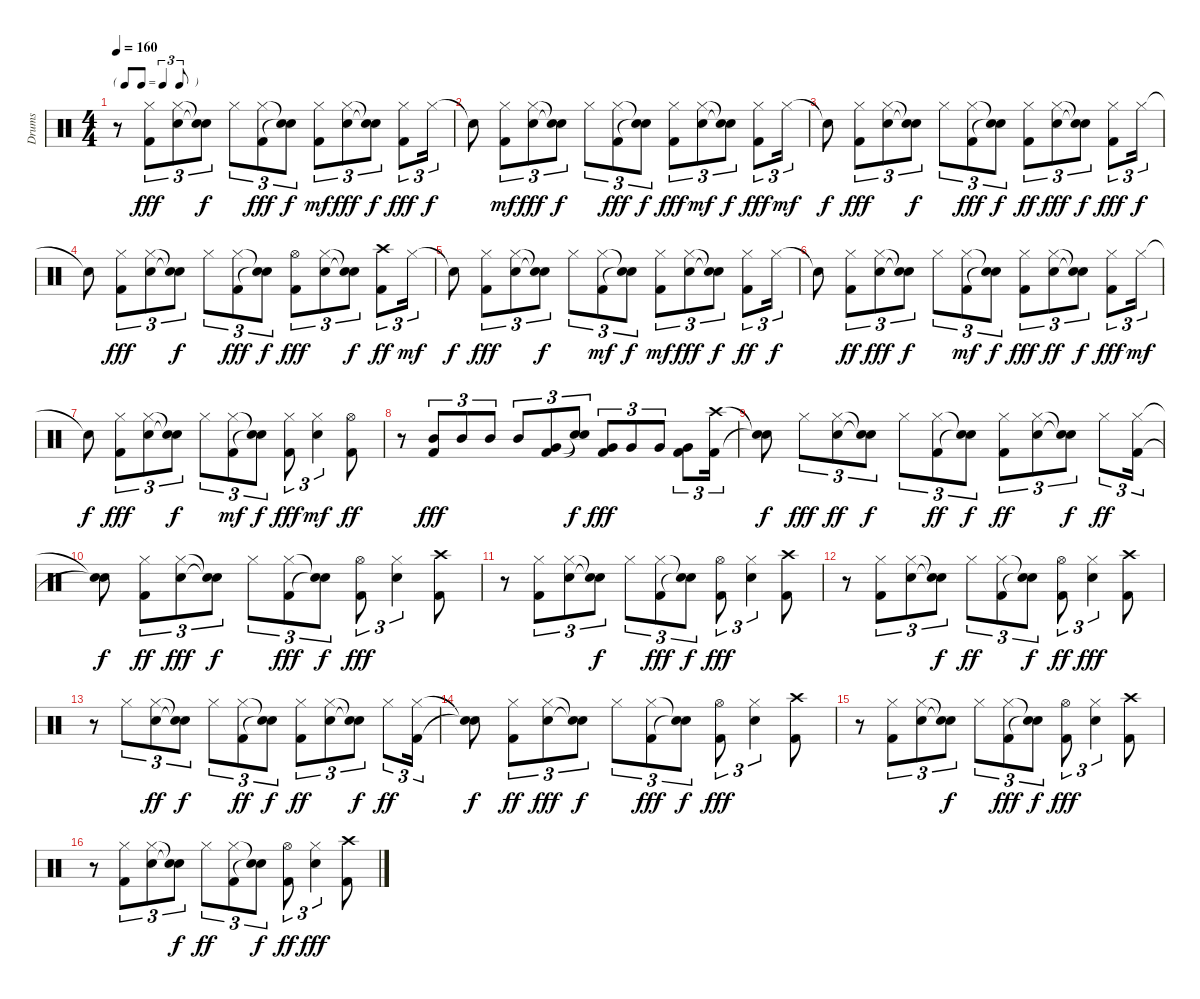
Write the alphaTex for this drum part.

\track ("Drums" "Drums") {instrument percussion}
\staff {score}
\articulation defaults
\ts (4 4)
\tf triplet8th
\tempo 160
\clef neutral
\ks c
r.8{dy ff} ("Kick (hit) 2" "Hi-Hat (closed)").8{tu (3 2) dy fff} ("Hi-Hat (closed)" "Electric Snare (hit)").8{tu (3 2)} ("Snare (hit)"{t} "Snare (hit)"{t}).8{tu (3 2) dy f} "Hi-Hat (closed)".8{tu (3 2)} ("Kick (hit) 2" "Hi-Hat (closed)").8{tu (3 2) dy fff} ("Snare (hit)"{t} "Snare (hit)"{t}).8{tu (3 2) dy f} ("Kick (hit) 2" "Hi-Hat (closed)").8{tu (3 2) dy mf} ("Electric Snare (hit)" "Hi-Hat (closed)").8{tu (3 2) dy fff} ("Snare (hit)"{t} "Snare (hit)"{t}).8{tu (3 2) dy f} ("Kick (hit) 2" "Hi-Hat (closed)").8{tu (3 2) dy fff} "Hi-Hat (closed)".16{tu (3 2) dy f} |
"Snare (hit)"{t}.8 ("Kick (hit) 2" "Hi-Hat (closed)").8{tu (3 2) dy mf} ("Electric Snare (hit)" "Hi-Hat (closed)").8{tu (3 2) dy fff} ("Snare (hit)"{t} "Snare (hit)"{t}).8{tu (3 2) dy f} "Hi-Hat (closed)".8{tu (3 2)} ("Kick (hit) 2" "Hi-Hat (closed)").8{tu (3 2) dy fff} ("Snare (hit)"{t} "Snare (hit)"{t}).8{tu (3 2) dy f} ("Kick (hit) 2" "Hi-Hat (closed)").8{tu (3 2) dy fff} ("Electric Snare (hit)" "Hi-Hat (closed)").8{tu (3 2) dy mf} ("Snare (hit)"{t} "Snare (hit)"{t}).8{tu (3 2) dy f} ("Kick (hit) 2" "Hi-Hat (closed)").8{tu (3 2) dy fff} "Hi-Hat (closed)".16{tu (3 2) dy mf} |
"Snare (hit)"{t}.8{dy f} ("Kick (hit) 2" "Hi-Hat (closed)").8{tu (3 2) dy fff} ("Hi-Hat (closed)" "Electric Snare (hit)").8{tu (3 2)} ("Snare (hit)"{t} "Snare (hit)"{t}).8{tu (3 2) dy f} "Hi-Hat (closed)".8{tu (3 2)} ("Kick (hit) 2" "Hi-Hat (closed)").8{tu (3 2) dy fff} ("Snare (hit)"{t} "Snare (hit)"{t}).8{tu (3 2) dy f} ("Kick (hit) 2" "Hi-Hat (closed)").8{tu (3 2) dy ff} ("Hi-Hat (closed)" "Electric Snare (hit)").8{tu (3 2) dy fff} ("Snare (hit)"{t} "Snare (hit)"{t}).8{tu (3 2) dy f} ("Kick (hit) 2" "Hi-Hat (closed)").8{tu (3 2) dy fff} "Hi-Hat (closed)".16{tu (3 2) dy f} |
"Snare (hit)"{t}.8 ("Kick (hit) 2" "Hi-Hat (closed)").8{tu (3 2) dy fff} ("Hi-Hat (closed)" "Electric Snare (hit)").8{tu (3 2)} ("Snare (hit)"{t} "Snare (hit)"{t}).8{tu (3 2) dy f} "Hi-Hat (closed)".8{tu (3 2)} ("Kick (hit) 2" "Hi-Hat (closed)").8{tu (3 2) dy fff} ("Snare (hit)"{t} "Snare (hit)"{t}).8{tu (3 2) dy f} ("Kick (hit) 2" "Hi-Hat (open)").8{tu (3 2) dy fff} ("Electric Snare (hit)" "Hi-Hat (closed)").8{tu (3 2)} ("Snare (hit)"{t} "Snare (hit)"{t}).8{tu (3 2) dy f} ("Kick (hit) 2" "Crash high (hit)").8{tu (3 2) dy ff} "Hi-Hat (closed)".16{tu (3 2) dy mf} |
"Snare (hit)"{t}.8{dy f} ("Kick (hit) 2" "Hi-Hat (closed)").8{tu (3 2) dy fff} ("Electric Snare (hit)" "Hi-Hat (closed)").8{tu (3 2)} ("Snare (hit)"{t} "Snare (hit)"{t}).8{tu (3 2) dy f} "Hi-Hat (closed)".8{tu (3 2)} ("Kick (hit) 2" "Hi-Hat (closed)").8{tu (3 2) dy mf} ("Snare (hit)"{t} "Snare (hit)"{t}).8{tu (3 2) dy f} ("Kick (hit) 2" "Hi-Hat (closed)").8{tu (3 2) dy mf} ("Electric Snare (hit)" "Hi-Hat (closed)").8{tu (3 2) dy fff} ("Snare (hit)"{t} "Snare (hit)"{t}).8{tu (3 2) dy f} ("Kick (hit) 2" "Hi-Hat (closed)").8{tu (3 2) dy ff} "Hi-Hat (closed)".16{tu (3 2) dy f} |
"Snare (hit)"{t}.8 ("Kick (hit) 2" "Hi-Hat (closed)").8{tu (3 2) dy ff} ("Hi-Hat (closed)" "Electric Snare (hit)").8{tu (3 2) dy fff} ("Snare (hit)"{t} "Snare (hit)"{t}).8{tu (3 2) dy f} "Hi-Hat (closed)".8{tu (3 2)} ("Kick (hit) 2" "Hi-Hat (closed)").8{tu (3 2) dy mf} ("Snare (hit)"{t} "Snare (hit)"{t}).8{tu (3 2) dy f} ("Kick (hit) 2" "Hi-Hat (closed)").8{tu (3 2) dy fff} ("Electric Snare (hit)" "Hi-Hat (closed)").8{tu (3 2) dy ff} ("Snare (hit)"{t} "Snare (hit)"{t}).8{tu (3 2) dy f} ("Kick (hit) 2" "Hi-Hat (closed)").8{tu (3 2) dy fff} "Hi-Hat (closed)".16{tu (3 2) dy mf} |
"Snare (hit)"{t}.8{dy f} ("Kick (hit) 2" "Hi-Hat (closed)").8{tu (3 2) dy fff} ("Hi-Hat (closed)" "Electric Snare (hit)").8{tu (3 2)} ("Snare (hit)"{t} "Snare (hit)"{t}).8{tu (3 2) dy f} "Hi-Hat (closed)".8{tu (3 2)} ("Kick (hit) 2" "Hi-Hat (closed)").8{tu (3 2) dy mf} ("Snare (hit)"{t} "Snare (hit)"{t}).8{tu (3 2) dy f} ("Kick (hit) 2" "Hi-Hat (closed)").8{tu (3 2) dy fff} ("Electric Snare (hit)" "Hi-Hat (closed)").4{tu (3 2) dy mf} ("Kick (hit) 2" "Hi-Hat (open)").8{dy ff} |
r.8 ("Kick (hit) 2" "Mid Tom (hit)").8{tu (3 2) dy fff} "Mid Tom (hit)".8{tu (3 2)} "Mid Tom (hit)".8{tu (3 2)} "Mid Tom (hit)".8{tu (3 2)} ("Kick (hit) 2" "Very Low Tom (hit)").8{tu (3 2)} ("Snare (hit)"{t} "Snare (hit)"{t}).8{tu (3 2) dy f} ("Kick (hit) 2" "Very Low Tom (hit)").8{tu (3 2) dy fff} "Very Low Tom (hit)".8{tu (3 2)} "Very Low Tom (hit)".8{tu (3 2)} ("Kick (hit) 2" "Very Low Tom (hit)").8{tu (3 2)} ("Kick (hit) 2" "Crash high (hit)").16{tu (3 2)} |
("Snare (hit)"{t} "Snare (hit)"{t}).8{dy f} "Hi-Hat (closed)".8{tu (3 2) dy fff} ("Electric Snare (hit)" "Hi-Hat (closed)").8{tu (3 2) dy ff} ("Snare (hit)"{t} "Snare (hit)"{t}).8{tu (3 2) dy f} "Hi-Hat (closed)".8{tu (3 2)} ("Kick (hit) 2" "Hi-Hat (closed)").8{tu (3 2) dy ff} ("Snare (hit)"{t} "Snare (hit)"{t}).8{tu (3 2) dy f} ("Kick (hit) 2" "Hi-Hat (closed)").8{tu (3 2) dy ff} ("Electric Snare (hit)" "Hi-Hat (closed)").8{tu (3 2)} ("Snare (hit)"{t} "Snare (hit)"{t}).8{tu (3 2) dy f} "Hi-Hat (closed)".8{tu (3 2) dy ff} ("Kick (hit) 2" "Hi-Hat (closed)").16{tu (3 2)} |
("Snare (hit)"{t} "Snare (hit)"{t}).8{dy f} ("Kick (hit) 2" "Hi-Hat (closed)").8{tu (3 2) dy ff} ("Hi-Hat (closed)" "Electric Snare (hit)").8{tu (3 2) dy fff} ("Snare (hit)"{t} "Snare (hit)"{t}).8{tu (3 2) dy f} "Hi-Hat (closed)".8{tu (3 2)} ("Kick (hit) 2" "Hi-Hat (closed)").8{tu (3 2) dy fff} ("Snare (hit)"{t} "Snare (hit)"{t}).8{tu (3 2) dy f} ("Kick (hit) 2" "Hi-Hat (open)").8{tu (3 2) dy fff} ("Electric Snare (hit)" "Hi-Hat (closed)").4{tu (3 2)} ("Kick (hit) 2" "Crash high (hit)").8 |
r.8 ("Kick (hit) 2" "Hi-Hat (closed)").8{tu (3 2)} ("Hi-Hat (closed)" "Electric Snare (hit)").8{tu (3 2)} ("Snare (hit)"{t} "Snare (hit)"{t}).8{tu (3 2) dy f} "Hi-Hat (closed)".8{tu (3 2)} ("Kick (hit) 2" "Hi-Hat (closed)").8{tu (3 2) dy fff} ("Snare (hit)"{t} "Snare (hit)"{t}).8{tu (3 2) dy f} ("Kick (hit) 2" "Hi-Hat (open)").8{tu (3 2) dy fff} ("Hi-Hat (closed)" "Electric Snare (hit)").4{tu (3 2)} ("Kick (hit) 2" "Crash high (hit)").8 |
r.8 ("Kick (hit) 2" "Hi-Hat (closed)").8{tu (3 2)} ("Hi-Hat (closed)" "Electric Snare (hit)").8{tu (3 2)} ("Snare (hit)"{t} "Snare (hit)"{t}).8{tu (3 2) dy f} "Hi-Hat (closed)".8{tu (3 2) dy ff} ("Kick (hit) 2" "Hi-Hat (closed)").8{tu (3 2)} ("Snare (hit)"{t} "Snare (hit)"{t}).8{tu (3 2) dy f} ("Kick (hit) 2" "Hi-Hat (open)").8{tu (3 2) dy ff} ("Hi-Hat (closed)" "Electric Snare (hit)").4{tu (3 2) dy fff} ("Kick (hit) 2" "Crash high (hit)").8 |
r.8 "Hi-Hat (closed)".8{tu (3 2)} ("Electric Snare (hit)" "Hi-Hat (closed)").8{tu (3 2) dy ff} ("Snare (hit)"{t} "Snare (hit)"{t}).8{tu (3 2) dy f} "Hi-Hat (closed)".8{tu (3 2)} ("Kick (hit) 2" "Hi-Hat (closed)").8{tu (3 2) dy ff} ("Snare (hit)"{t} "Snare (hit)"{t}).8{tu (3 2) dy f} ("Kick (hit) 2" "Hi-Hat (closed)").8{tu (3 2) dy ff} ("Electric Snare (hit)" "Hi-Hat (closed)").8{tu (3 2)} ("Snare (hit)"{t} "Snare (hit)"{t}).8{tu (3 2) dy f} "Hi-Hat (closed)".8{tu (3 2) dy ff} ("Kick (hit) 2" "Hi-Hat (closed)").16{tu (3 2)} |
("Snare (hit)"{t} "Snare (hit)"{t}).8{dy f} ("Kick (hit) 2" "Hi-Hat (closed)").8{tu (3 2) dy ff} ("Hi-Hat (closed)" "Electric Snare (hit)").8{tu (3 2) dy fff} ("Snare (hit)"{t} "Snare (hit)"{t}).8{tu (3 2) dy f} "Hi-Hat (closed)".8{tu (3 2)} ("Kick (hit) 2" "Hi-Hat (closed)").8{tu (3 2) dy fff} ("Snare (hit)"{t} "Snare (hit)"{t}).8{tu (3 2) dy f} ("Kick (hit) 2" "Hi-Hat (open)").8{tu (3 2) dy fff} ("Electric Snare (hit)" "Hi-Hat (closed)").4{tu (3 2)} ("Kick (hit) 2" "Crash high (hit)").8 |
r.8 ("Kick (hit) 2" "Hi-Hat (closed)").8{tu (3 2)} ("Hi-Hat (closed)" "Electric Snare (hit)").8{tu (3 2)} ("Snare (hit)"{t} "Snare (hit)"{t}).8{tu (3 2) dy f} "Hi-Hat (closed)".8{tu (3 2)} ("Kick (hit) 2" "Hi-Hat (closed)").8{tu (3 2) dy fff} ("Snare (hit)"{t} "Snare (hit)"{t}).8{tu (3 2) dy f} ("Kick (hit) 2" "Hi-Hat (open)").8{tu (3 2) dy fff} ("Hi-Hat (closed)" "Electric Snare (hit)").4{tu (3 2)} ("Kick (hit) 2" "Crash high (hit)").8 |
r.8 ("Kick (hit) 2" "Hi-Hat (closed)").8{tu (3 2)} ("Hi-Hat (closed)" "Electric Snare (hit)").8{tu (3 2)} ("Snare (hit)"{t} "Snare (hit)"{t}).8{tu (3 2) dy f} "Hi-Hat (closed)".8{tu (3 2) dy ff} ("Kick (hit) 2" "Hi-Hat (closed)").8{tu (3 2)} ("Snare (hit)"{t} "Snare (hit)"{t}).8{tu (3 2) dy f} ("Kick (hit) 2" "Hi-Hat (open)").8{tu (3 2) dy ff} ("Hi-Hat (closed)" "Electric Snare (hit)").4{tu (3 2) dy fff} ("Kick (hit) 2" "Crash high (hit)").8
